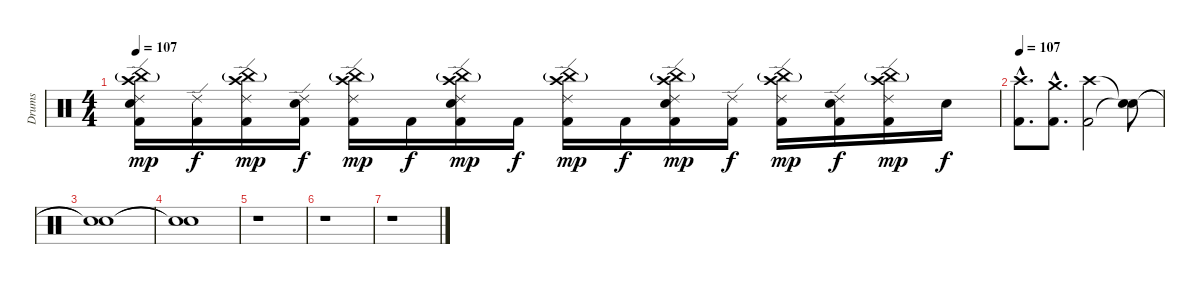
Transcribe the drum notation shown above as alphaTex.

\track ("Drums" "Drums") {instrument percussion}
\staff {score}
\articulation defaults
\ts (4 4)
\tempo 107
\clef neutral
\ks c
("Kick (hit) 2" "Electric Snare (hit)" "Ride (edge) 2" "Crash high (hit)" "China (hit)"{g}).16{dy mp} ("Kick (hit) 2" "Ride (edge) 2").16{dy f} ("Kick (hit) 2" "Ride (edge) 2" "Crash high (hit)" "China (hit)"{g}).16{dy mp} ("Kick (hit) 2" "Electric Snare (hit)" "Ride (edge) 2").16{dy f} ("Kick (hit) 2" "Ride (edge) 2" "Crash high (hit)" "China (hit)"{g}).16{dy mp} "Kick (hit) 2".16{dy f} ("Kick (hit) 2" "Electric Snare (hit)" "Ride (edge) 2" "Crash high (hit)" "China (hit)"{g}).16{dy mp} "Kick (hit) 2".16{dy f} ("Kick (hit) 2" "Ride (edge) 2" "Crash high (hit)" "China (hit)"{g}).16{dy mp} "Kick (hit) 2".16{dy f} ("Kick (hit) 2" "Electric Snare (hit)" "Ride (edge) 2" "Crash high (hit)" "China (hit)"{g}).16{dy mp} ("Kick (hit) 2" "Ride (edge) 2").16{dy f} ("Kick (hit) 2" "Ride (edge) 2" "Crash high (hit)" "China (hit)"{g}).16{dy mp} ("Kick (hit) 2" "Electric Snare (hit)" "Ride (edge) 2").16{dy f} ("Kick (hit) 2" "Ride (edge) 2" "Crash high (hit)" "China (hit)"{g}).16{dy mp} "Electric Snare (hit)".16{dy f} |
\tempo 107
("Kick (hit) 2"{hac} "Crash high (hit)"{hac}).8{d} ("Kick (hit) 2"{hac} "Crash medium (hit)"{hac}).8{d} ("Kick (hit) 2" "Crash high (hit)").2 ("Snare (hit)"{t} "Snare (hit)"{t}).8 |
("Snare (hit)"{t} "Snare (hit)"{t}).1 |
("Snare (hit)"{t} "Snare (hit)"{t}).1 |
r.1 |
r.1 |
r.1
